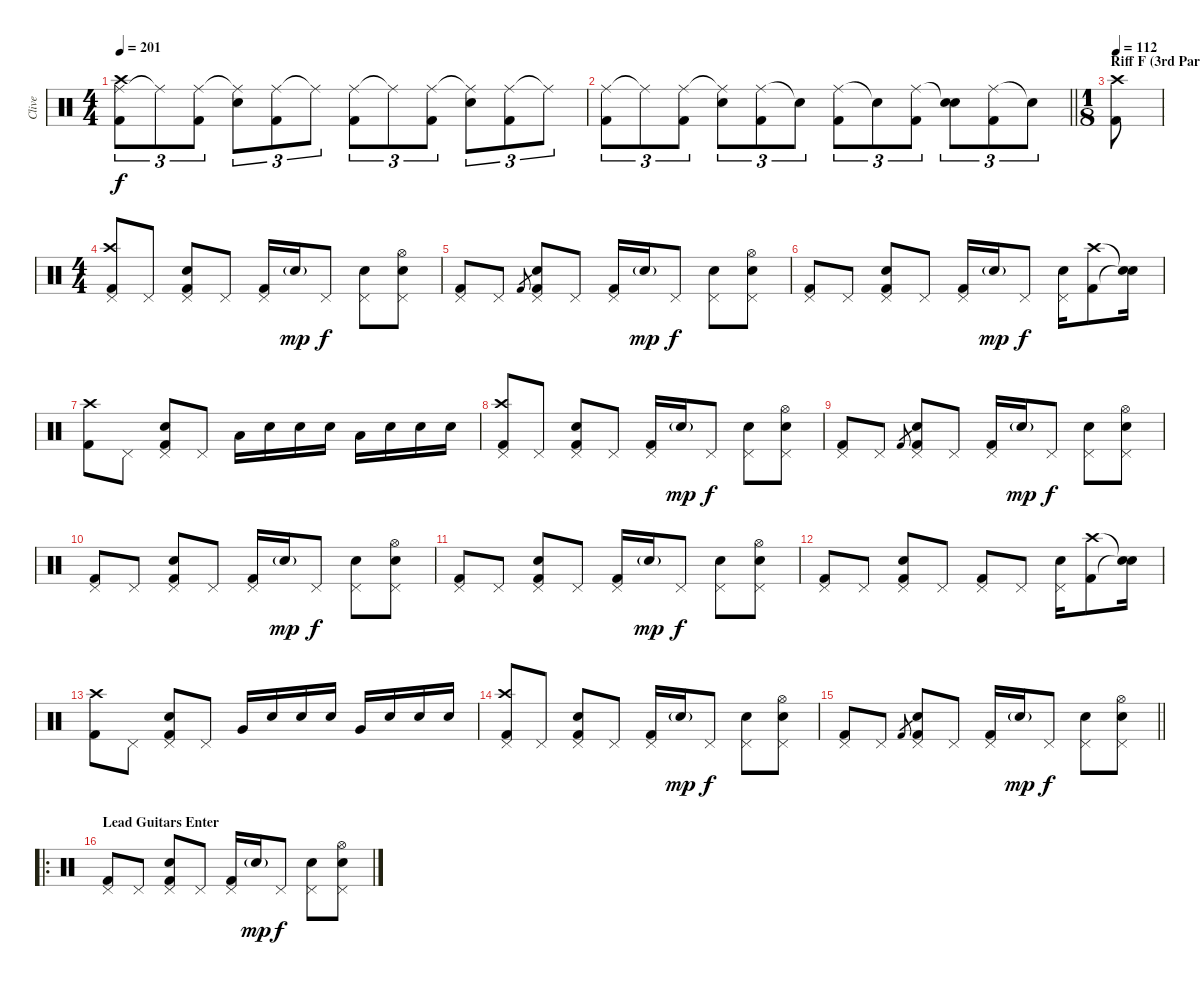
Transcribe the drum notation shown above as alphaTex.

\track ("Clive" "Clive") {instrument percussion}
\staff {score}
\articulation defaults
\ts (4 4)
\tempo 201
\clef neutral
\ks c
("Ride (middle)" "Kick (hit) 2" "Crash high (hit)").8{tu (3 2) dy f} "Ride (middle)"{t}.8{tu (3 2)} ("Ride (middle)" "Kick (hit) 2").8{tu (3 2)} ("Ride (middle)"{t} "Snare (hit) 2").8{tu (3 2)} ("Ride (middle)" "Kick (hit) 2").8{tu (3 2)} "Ride (middle)"{t}.8{tu (3 2)} ("Ride (middle)" "Kick (hit) 2").8{tu (3 2)} "Ride (middle)"{t}.8{tu (3 2)} ("Ride (middle)" "Kick (hit) 2").8{tu (3 2)} ("Ride (middle)"{t} "Snare (hit) 2").8{tu (3 2)} ("Ride (middle)" "Kick (hit) 2").8{tu (3 2)} "Ride (middle)"{t}.8{tu (3 2)} |
\barLineRight lightlight
("Ride (middle)" "Kick (hit) 2").8{tu (3 2)} "Ride (middle)"{t}.8{tu (3 2)} ("Ride (middle)" "Kick (hit) 2").8{tu (3 2)} ("Ride (middle)"{t} "Snare (hit) 2").8{tu (3 2)} ("Ride (middle)" "Kick (hit) 2").8{tu (3 2)} "Snare (hit)"{t}.8{tu (3 2)} ("Ride (middle)" "Kick (hit) 2").8{tu (3 2)} "Snare (hit)"{t}.8{tu (3 2)} ("Ride (middle)" "Kick (hit) 2").8{tu (3 2)} ("Snare (hit)"{t} "Snare (hit) 2").8{tu (3 2)} ("Ride (middle)" "Kick (hit) 2").8{tu (3 2)} "Snare (hit)"{t}.8{tu (3 2)} |
\ts (1 8)
\section ("" "Riff F (3rd Part)")
\tempo 112
("Crash high (hit)" "Kick (hit) 2").8 |
\ts (4 4)
("Pedal Hi-Hat (hit)" "Kick (hit) 2" "Crash high (hit)").8 "Pedal Hi-Hat (hit)".8 ("Pedal Hi-Hat (hit)" "Snare (hit) 2" "Kick (hit) 2").8 "Pedal Hi-Hat (hit)".8 ("Pedal Hi-Hat (hit)" "Kick (hit) 2").16 "Snare (hit) 2"{g}.16{dy mp} "Pedal Hi-Hat (hit)".8{dy f} ("Pedal Hi-Hat (hit)" "Snare (hit) 2").8 ("Pedal Hi-Hat (hit)" "Snare (hit) 2" "Hi-Hat (open)").8 |
("Pedal Hi-Hat (hit)" "Kick (hit) 2").8 "Pedal Hi-Hat (hit)".8 "Kick (hit) 2".8{gr} ("Pedal Hi-Hat (hit)" "Snare (hit) 2" "Kick (hit) 2").8 "Pedal Hi-Hat (hit)".8 ("Pedal Hi-Hat (hit)" "Kick (hit) 2").16 "Snare (hit) 2"{g}.16{dy mp} "Pedal Hi-Hat (hit)".8{dy f} ("Pedal Hi-Hat (hit)" "Snare (hit) 2").8 ("Pedal Hi-Hat (hit)" "Snare (hit) 2" "Hi-Hat (open)").8 |
("Pedal Hi-Hat (hit)" "Kick (hit) 2").8 "Pedal Hi-Hat (hit)".8 ("Pedal Hi-Hat (hit)" "Snare (hit) 2" "Kick (hit) 2").8 "Pedal Hi-Hat (hit)".8 ("Pedal Hi-Hat (hit)" "Kick (hit) 2").16 "Snare (hit) 2"{g}.16{dy mp} "Pedal Hi-Hat (hit)".8{dy f} ("Pedal Hi-Hat (hit)" "Snare (hit) 2").16 ("Crash high (hit)" "Kick (hit) 2").8 ("Snare (hit)"{t} "Snare (hit)"{t}).16 |
("Crash high (hit)" "Kick (hit) 2").8 "Pedal Hi-Hat (hit)".8 ("Pedal Hi-Hat (hit)" "Kick (hit) 2" "Snare (hit) 2").8 "Pedal Hi-Hat (hit)".8 "Low Tom (hit)".16 "Snare (hit) 2".16 "Snare (hit) 2".16 "Snare (hit) 2".16 "Low Tom (hit)".16 "Snare (hit) 2".16 "Snare (hit) 2".16 "Snare (hit) 2".16 |
("Pedal Hi-Hat (hit)" "Kick (hit) 2" "Crash high (hit)").8 "Pedal Hi-Hat (hit)".8 ("Pedal Hi-Hat (hit)" "Snare (hit) 2" "Kick (hit) 2").8 "Pedal Hi-Hat (hit)".8 ("Pedal Hi-Hat (hit)" "Kick (hit) 2").16 "Snare (hit) 2"{g}.16{dy mp} "Pedal Hi-Hat (hit)".8{dy f} ("Pedal Hi-Hat (hit)" "Snare (hit) 2").8 ("Pedal Hi-Hat (hit)" "Snare (hit) 2" "Hi-Hat (open)").8 |
("Pedal Hi-Hat (hit)" "Kick (hit) 2").8 "Pedal Hi-Hat (hit)".8 "Kick (hit) 2".8{gr} ("Pedal Hi-Hat (hit)" "Snare (hit) 2" "Kick (hit) 2").8 "Pedal Hi-Hat (hit)".8 ("Pedal Hi-Hat (hit)" "Kick (hit) 2").16 "Snare (hit) 2"{g}.16{dy mp} "Pedal Hi-Hat (hit)".8{dy f} ("Pedal Hi-Hat (hit)" "Snare (hit) 2").8 ("Pedal Hi-Hat (hit)" "Snare (hit) 2" "Hi-Hat (open)").8 |
("Pedal Hi-Hat (hit)" "Kick (hit) 2").8 "Pedal Hi-Hat (hit)".8 ("Pedal Hi-Hat (hit)" "Snare (hit) 2" "Kick (hit) 2").8 "Pedal Hi-Hat (hit)".8 ("Pedal Hi-Hat (hit)" "Kick (hit) 2").16 "Snare (hit) 2"{g}.16{dy mp} "Pedal Hi-Hat (hit)".8{dy f} ("Pedal Hi-Hat (hit)" "Snare (hit) 2").8 ("Pedal Hi-Hat (hit)" "Snare (hit) 2" "Hi-Hat (open)").8 |
("Pedal Hi-Hat (hit)" "Kick (hit) 2").8 "Pedal Hi-Hat (hit)".8 ("Pedal Hi-Hat (hit)" "Snare (hit) 2" "Kick (hit) 2").8 "Pedal Hi-Hat (hit)".8 ("Pedal Hi-Hat (hit)" "Kick (hit) 2").16 "Snare (hit) 2"{g}.16{dy mp} "Pedal Hi-Hat (hit)".8{dy f} ("Pedal Hi-Hat (hit)" "Snare (hit) 2").8 ("Pedal Hi-Hat (hit)" "Snare (hit) 2" "Hi-Hat (open)").8 |
("Pedal Hi-Hat (hit)" "Kick (hit) 2").8 "Pedal Hi-Hat (hit)".8 ("Pedal Hi-Hat (hit)" "Snare (hit) 2" "Kick (hit) 2").8 "Pedal Hi-Hat (hit)".8 ("Pedal Hi-Hat (hit)" "Kick (hit) 2").8 "Pedal Hi-Hat (hit)".8 ("Pedal Hi-Hat (hit)" "Snare (hit) 2").16 ("Crash high (hit)" "Kick (hit) 2").8 ("Snare (hit)"{t} "Snare (hit)"{t}).16 |
("Crash high (hit)" "Kick (hit) 2").8 "Pedal Hi-Hat (hit)".8 ("Pedal Hi-Hat (hit)" "Kick (hit) 2" "Snare (hit) 2").8 "Pedal Hi-Hat (hit)".8 "Very Low Tom (hit)".16 "Snare (hit) 2".16 "Snare (hit) 2".16 "Snare (hit) 2".16 "Very Low Tom (hit)".16 "Snare (hit) 2".16 "Snare (hit) 2".16 "Snare (hit) 2".16 |
("Pedal Hi-Hat (hit)" "Kick (hit) 2" "Crash high (hit)").8 "Pedal Hi-Hat (hit)".8 ("Pedal Hi-Hat (hit)" "Snare (hit) 2" "Kick (hit) 2").8 "Pedal Hi-Hat (hit)".8 ("Pedal Hi-Hat (hit)" "Kick (hit) 2").16 "Snare (hit) 2"{g}.16{dy mp} "Pedal Hi-Hat (hit)".8{dy f} ("Pedal Hi-Hat (hit)" "Snare (hit) 2").8 ("Pedal Hi-Hat (hit)" "Snare (hit) 2" "Hi-Hat (open)").8 |
\barLineRight lightlight
("Pedal Hi-Hat (hit)" "Kick (hit) 2").8 "Pedal Hi-Hat (hit)".8 "Kick (hit) 2".8{gr} ("Pedal Hi-Hat (hit)" "Snare (hit) 2" "Kick (hit) 2").8 "Pedal Hi-Hat (hit)".8 ("Pedal Hi-Hat (hit)" "Kick (hit) 2").16 "Snare (hit) 2"{g}.16{dy mp} "Pedal Hi-Hat (hit)".8{dy f} ("Pedal Hi-Hat (hit)" "Snare (hit) 2").8 ("Pedal Hi-Hat (hit)" "Snare (hit) 2" "Hi-Hat (open)").8 |
\ro
\section ("" "Lead Guitars Enter")
("Pedal Hi-Hat (hit)" "Kick (hit) 2").8 "Pedal Hi-Hat (hit)".8 ("Pedal Hi-Hat (hit)" "Snare (hit) 2" "Kick (hit) 2").8 "Pedal Hi-Hat (hit)".8 ("Pedal Hi-Hat (hit)" "Kick (hit) 2").16 "Snare (hit) 2"{g}.16{dy mp} "Pedal Hi-Hat (hit)".8{dy f} ("Pedal Hi-Hat (hit)" "Snare (hit) 2").8 ("Pedal Hi-Hat (hit)" "Snare (hit) 2" "Hi-Hat (open)").8
